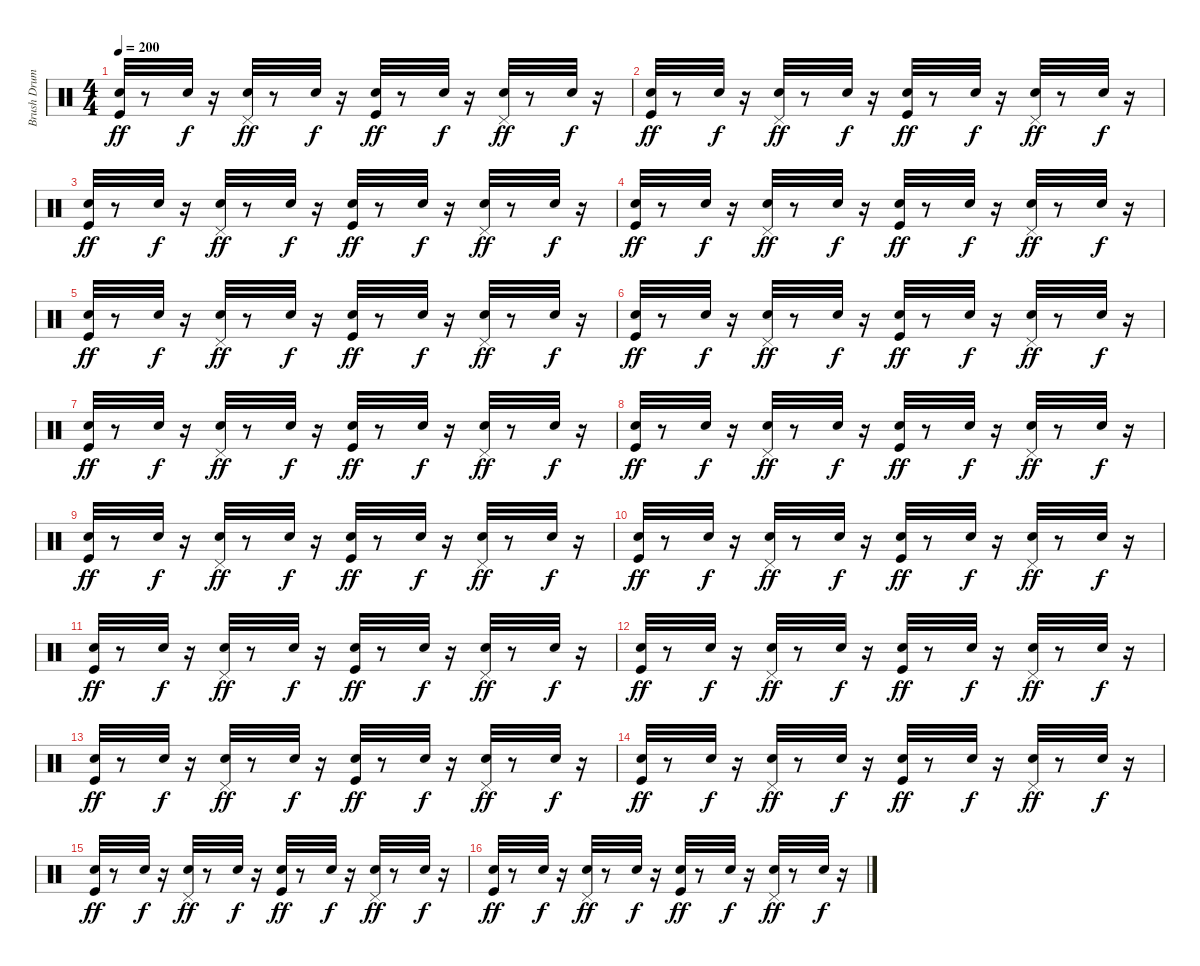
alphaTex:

\track ("Brush Drums" "Brush Drum") {instrument percussion}
\staff {score}
\articulation defaults
\ts (4 4)
\tempo 200
\clef neutral
\ks c
("Snare (hit) 2" "Kick (hit)").32{dy ff} r.8 "Snare (hit) 2".32{dy f} r.16 ("Hand Clap (hit)" "Pedal Hi-Hat (hit)").32{dy ff} r.8 "Snare (hit) 2".32{dy f} r.16 ("Kick (hit)" "Snare (hit) 2").32{dy ff} r.8 "Snare (hit) 2".32{dy f} r.16 ("Hand Clap (hit)" "Pedal Hi-Hat (hit)").32{dy ff} r.8 "Snare (hit) 2".32{dy f} r.16 |
("Snare (hit) 2" "Kick (hit)").32{dy ff} r.8 "Snare (hit) 2".32{dy f} r.16 ("Pedal Hi-Hat (hit)" "Hand Clap (hit)").32{dy ff} r.8 "Snare (hit) 2".32{dy f} r.16 ("Kick (hit)" "Snare (hit) 2").32{dy ff} r.8 "Snare (hit) 2".32{dy f} r.16 ("Pedal Hi-Hat (hit)" "Hand Clap (hit)").32{dy ff} r.8 "Snare (hit) 2".32{dy f} r.16 |
("Snare (hit) 2" "Kick (hit)").32{dy ff} r.8 "Snare (hit) 2".32{dy f} r.16 ("Hand Clap (hit)" "Pedal Hi-Hat (hit)").32{dy ff} r.8 "Snare (hit) 2".32{dy f} r.16 ("Kick (hit)" "Snare (hit) 2").32{dy ff} r.8 "Snare (hit) 2".32{dy f} r.16 ("Hand Clap (hit)" "Pedal Hi-Hat (hit)").32{dy ff} r.8 "Snare (hit) 2".32{dy f} r.16 |
("Snare (hit) 2" "Kick (hit)").32{dy ff} r.8 "Snare (hit) 2".32{dy f} r.16 ("Hand Clap (hit)" "Pedal Hi-Hat (hit)").32{dy ff} r.8 "Snare (hit) 2".32{dy f} r.16 ("Kick (hit)" "Snare (hit) 2").32{dy ff} r.8 "Snare (hit) 2".32{dy f} r.16 ("Pedal Hi-Hat (hit)" "Hand Clap (hit)").32{dy ff} r.8 "Snare (hit) 2".32{dy f} r.16 |
("Snare (hit) 2" "Kick (hit)").32{dy ff} r.8 "Snare (hit) 2".32{dy f} r.16 ("Hand Clap (hit)" "Pedal Hi-Hat (hit)").32{dy ff} r.8 "Snare (hit) 2".32{dy f} r.16 ("Kick (hit)" "Snare (hit) 2").32{dy ff} r.8 "Snare (hit) 2".32{dy f} r.16 ("Pedal Hi-Hat (hit)" "Hand Clap (hit)").32{dy ff} r.8 "Snare (hit) 2".32{dy f} r.16 |
("Snare (hit) 2" "Kick (hit)").32{dy ff} r.8 "Snare (hit) 2".32{dy f} r.16 ("Pedal Hi-Hat (hit)" "Hand Clap (hit)").32{dy ff} r.8 "Snare (hit) 2".32{dy f} r.16 ("Snare (hit) 2" "Kick (hit)").32{dy ff} r.8 "Snare (hit) 2".32{dy f} r.16 ("Hand Clap (hit)" "Pedal Hi-Hat (hit)").32{dy ff} r.8 "Snare (hit) 2".32{dy f} r.16 |
("Snare (hit) 2" "Kick (hit)").32{dy ff} r.8 "Snare (hit) 2".32{dy f} r.16 ("Pedal Hi-Hat (hit)" "Hand Clap (hit)").32{dy ff} r.8 "Snare (hit) 2".32{dy f} r.16 ("Snare (hit) 2" "Kick (hit)").32{dy ff} r.8 "Snare (hit) 2".32{dy f} r.16 ("Hand Clap (hit)" "Pedal Hi-Hat (hit)").32{dy ff} r.8 "Snare (hit) 2".32{dy f} r.16 |
("Kick (hit)" "Snare (hit) 2").32{dy ff} r.8 "Snare (hit) 2".32{dy f} r.16 ("Hand Clap (hit)" "Pedal Hi-Hat (hit)").32{dy ff} r.8 "Snare (hit) 2".32{dy f} r.16 ("Kick (hit)" "Snare (hit) 2").32{dy ff} r.8 "Snare (hit) 2".32{dy f} r.16 ("Hand Clap (hit)" "Pedal Hi-Hat (hit)").32{dy ff} r.8 "Snare (hit) 2".32{dy f} r.16 |
("Snare (hit) 2" "Kick (hit)").32{dy ff} r.8 "Snare (hit) 2".32{dy f} r.16 ("Hand Clap (hit)" "Pedal Hi-Hat (hit)").32{dy ff} r.8 "Snare (hit) 2".32{dy f} r.16 ("Kick (hit)" "Snare (hit) 2").32{dy ff} r.8 "Snare (hit) 2".32{dy f} r.16 ("Hand Clap (hit)" "Pedal Hi-Hat (hit)").32{dy ff} r.8 "Snare (hit) 2".32{dy f} r.16 |
("Kick (hit)" "Snare (hit) 2").32{dy ff} r.8 "Snare (hit) 2".32{dy f} r.16 ("Hand Clap (hit)" "Pedal Hi-Hat (hit)").32{dy ff} r.8 "Snare (hit) 2".32{dy f} r.16 ("Snare (hit) 2" "Kick (hit)").32{dy ff} r.8 "Snare (hit) 2".32{dy f} r.16 ("Hand Clap (hit)" "Pedal Hi-Hat (hit)").32{dy ff} r.8 "Snare (hit) 2".32{dy f} r.16 |
("Snare (hit) 2" "Kick (hit)").32{dy ff} r.8 "Snare (hit) 2".32{dy f} r.16 ("Hand Clap (hit)" "Pedal Hi-Hat (hit)").32{dy ff} r.8 "Snare (hit) 2".32{dy f} r.16 ("Snare (hit) 2" "Kick (hit)").32{dy ff} r.8 "Snare (hit) 2".32{dy f} r.16 ("Hand Clap (hit)" "Pedal Hi-Hat (hit)").32{dy ff} r.8 "Snare (hit) 2".32{dy f} r.16 |
("Snare (hit) 2" "Kick (hit)").32{dy ff} r.8 "Snare (hit) 2".32{dy f} r.16 ("Pedal Hi-Hat (hit)" "Hand Clap (hit)").32{dy ff} r.8 "Snare (hit) 2".32{dy f} r.16 ("Snare (hit) 2" "Kick (hit)").32{dy ff} r.8 "Snare (hit) 2".32{dy f} r.16 ("Hand Clap (hit)" "Pedal Hi-Hat (hit)").32{dy ff} r.8 "Snare (hit) 2".32{dy f} r.16 |
("Snare (hit) 2" "Kick (hit)").32{dy ff} r.8 "Snare (hit) 2".32{dy f} r.16 ("Hand Clap (hit)" "Pedal Hi-Hat (hit)").32{dy ff} r.8 "Snare (hit) 2".32{dy f} r.16 ("Kick (hit)" "Snare (hit) 2").32{dy ff} r.8 "Snare (hit) 2".32{dy f} r.16 ("Hand Clap (hit)" "Pedal Hi-Hat (hit)").32{dy ff} r.8 "Snare (hit) 2".32{dy f} r.16 |
("Snare (hit) 2" "Kick (hit)").32{dy ff} r.8 "Snare (hit) 2".32{dy f} r.16 ("Hand Clap (hit)" "Pedal Hi-Hat (hit)").32{dy ff} r.8 "Snare (hit) 2".32{dy f} r.16 ("Kick (hit)" "Snare (hit) 2").32{dy ff} r.8 "Snare (hit) 2".32{dy f} r.16 ("Hand Clap (hit)" "Pedal Hi-Hat (hit)").32{dy ff} r.8 "Snare (hit) 2".32{dy f} r.16 |
("Kick (hit)" "Snare (hit) 2").32{dy ff} r.8 "Snare (hit) 2".32{dy f} r.16 ("Hand Clap (hit)" "Pedal Hi-Hat (hit)").32{dy ff} r.8 "Snare (hit) 2".32{dy f} r.16 ("Snare (hit) 2" "Kick (hit)").32{dy ff} r.8 "Snare (hit) 2".32{dy f} r.16 ("Hand Clap (hit)" "Pedal Hi-Hat (hit)").32{dy ff} r.8 "Snare (hit) 2".32{dy f} r.16 |
("Kick (hit)" "Snare (hit) 2").32{dy ff} r.8 "Snare (hit) 2".32{dy f} r.16 ("Hand Clap (hit)" "Pedal Hi-Hat (hit)").32{dy ff} r.8 "Snare (hit) 2".32{dy f} r.16 ("Snare (hit) 2" "Kick (hit)").32{dy ff} r.8 "Snare (hit) 2".32{dy f} r.16 ("Hand Clap (hit)" "Pedal Hi-Hat (hit)").32{dy ff} r.8 "Snare (hit) 2".32{dy f} r.16
